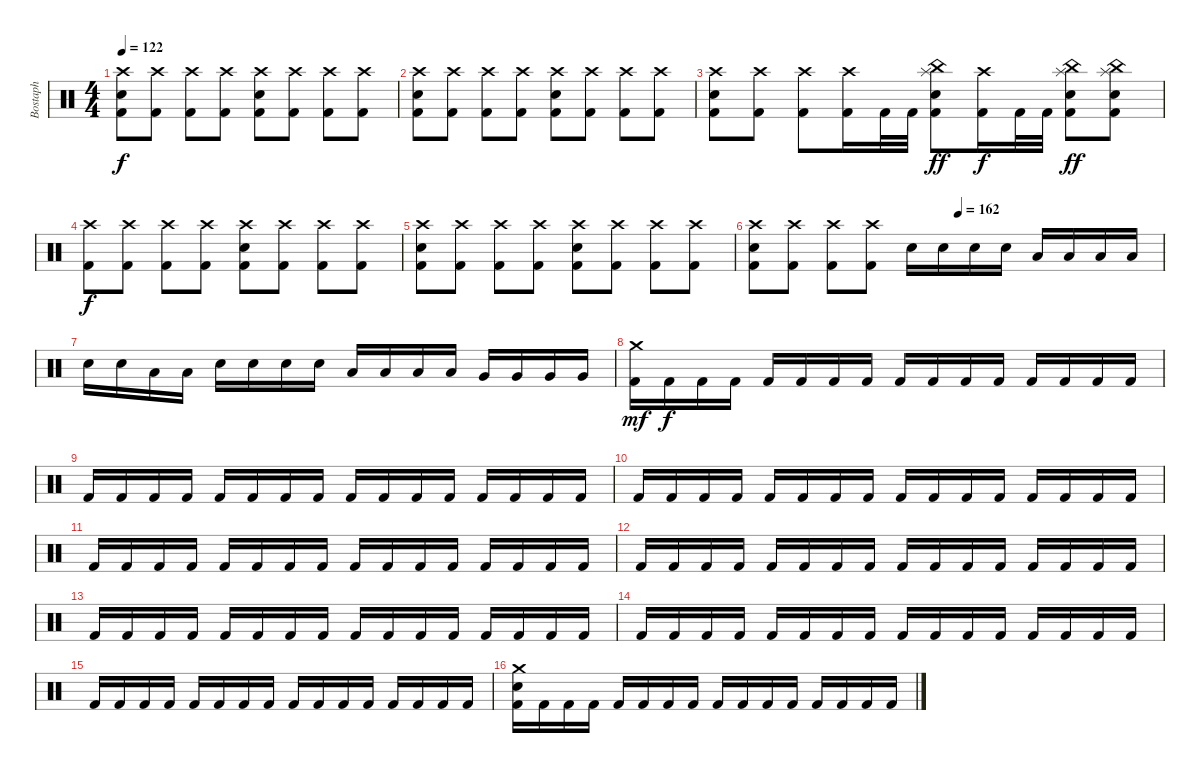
\track ("Bostaph" "Bostaph") {instrument percussion}
\staff {score}
\articulation defaults
\ts (4 4)
\tempo 122
\clef neutral
\ks c
("Crash high (hit)" "Electric Snare (hit)" "Kick (hit) 2").8{dy f} ("Crash high (hit)" "Kick (hit) 2").8 ("Crash high (hit)" "Kick (hit) 2").8 ("Crash high (hit)" "Kick (hit) 2").8 ("Crash high (hit)" "Electric Snare (hit)" "Kick (hit) 2").8 ("Crash high (hit)" "Kick (hit) 2").8 ("Crash high (hit)" "Kick (hit) 2").8 ("Crash high (hit)" "Kick (hit) 2").8 |
("Crash high (hit)" "Electric Snare (hit)" "Kick (hit) 2").8 ("Crash high (hit)" "Kick (hit) 2").8 ("Crash high (hit)" "Kick (hit) 2").8 ("Crash high (hit)" "Kick (hit) 2").8 ("Crash high (hit)" "Electric Snare (hit)" "Kick (hit) 2").8 ("Crash high (hit)" "Kick (hit) 2").8 ("Crash high (hit)" "Kick (hit) 2").8 ("Crash high (hit)" "Kick (hit) 2").8 |
("Crash high (hit)" "Electric Snare (hit)" "Kick (hit) 2").8 ("Crash high (hit)" "Kick (hit) 2").8 ("Crash high (hit)" "Kick (hit) 2").8 ("Crash high (hit)" "Kick (hit) 2").16 "Kick (hit) 2".32 "Kick (hit) 2".32 ("China (hit)" "Splash (hit)" "Electric Snare (hit)" "Kick (hit) 2").8{dy ff} ("Crash high (hit)" "Kick (hit) 2").16{dy f} "Kick (hit) 2".32 "Kick (hit) 2".32 ("China (hit)" "Splash (hit)" "Electric Snare (hit)" "Kick (hit) 2").8{dy ff} ("China (hit)" "Splash (hit)" "Electric Snare (hit)" "Kick (hit) 2").8 |
("Crash high (hit)" "Kick (hit) 2").8{dy f} ("Crash high (hit)" "Kick (hit) 2").8 ("Crash high (hit)" "Kick (hit) 2").8 ("Crash high (hit)" "Kick (hit) 2").8 ("Crash high (hit)" "Electric Snare (hit)" "Kick (hit) 2").8 ("Crash high (hit)" "Kick (hit) 2").8 ("Crash high (hit)" "Kick (hit) 2").8 ("Crash high (hit)" "Kick (hit) 2").8 |
("Crash high (hit)" "Electric Snare (hit)" "Kick (hit) 2").8 ("Crash high (hit)" "Kick (hit) 2").8 ("Crash high (hit)" "Kick (hit) 2").8 ("Crash high (hit)" "Kick (hit) 2").8 ("Crash high (hit)" "Electric Snare (hit)" "Kick (hit) 2").8 ("Crash high (hit)" "Kick (hit) 2").8 ("Crash high (hit)" "Kick (hit) 2").8 ("Crash high (hit)" "Kick (hit) 2").8 |
\tempo (162 0.5)
("Crash high (hit)" "Electric Snare (hit)" "Kick (hit) 2").8 ("Crash high (hit)" "Kick (hit) 2").8 ("Crash high (hit)" "Kick (hit) 2").8 ("Crash high (hit)" "Kick (hit) 2").8 "Electric Snare (hit)".16 "Electric Snare (hit)".16 "Electric Snare (hit)".16 "Electric Snare (hit)".16 "Low Tom (hit)".16 "Low Tom (hit)".16 "Low Tom (hit)".16 "Low Tom (hit)".16 |
"Electric Snare (hit)".16 "Electric Snare (hit)".16 "Low Tom (hit)".16 "Low Tom (hit)".16 "Electric Snare (hit)".16 "Electric Snare (hit)".16 "Electric Snare (hit)".16 "Electric Snare (hit)".16 "Low Tom (hit)".16 "Low Tom (hit)".16 "Low Tom (hit)".16 "Low Tom (hit)".16 "Very Low Tom (hit)".16 "Very Low Tom (hit)".16 "Very Low Tom (hit)".16 "Very Low Tom (hit)".16 |
("Crash medium (hit)" "Kick (hit) 2").16{dy mf} "Kick (hit) 2".16{dy f} "Kick (hit) 2".16 "Kick (hit) 2".16 "Kick (hit) 2".16 "Kick (hit) 2".16 "Kick (hit) 2".16 "Kick (hit) 2".16 "Kick (hit) 2".16 "Kick (hit) 2".16 "Kick (hit) 2".16 "Kick (hit) 2".16 "Kick (hit) 2".16 "Kick (hit) 2".16 "Kick (hit) 2".16 "Kick (hit) 2".16 |
"Kick (hit) 2".16 "Kick (hit) 2".16 "Kick (hit) 2".16 "Kick (hit) 2".16 "Kick (hit) 2".16 "Kick (hit) 2".16 "Kick (hit) 2".16 "Kick (hit) 2".16 "Kick (hit) 2".16 "Kick (hit) 2".16 "Kick (hit) 2".16 "Kick (hit) 2".16 "Kick (hit) 2".16 "Kick (hit) 2".16 "Kick (hit) 2".16 "Kick (hit) 2".16 |
"Kick (hit) 2".16 "Kick (hit) 2".16 "Kick (hit) 2".16 "Kick (hit) 2".16 "Kick (hit) 2".16 "Kick (hit) 2".16 "Kick (hit) 2".16 "Kick (hit) 2".16 "Kick (hit) 2".16 "Kick (hit) 2".16 "Kick (hit) 2".16 "Kick (hit) 2".16 "Kick (hit) 2".16 "Kick (hit) 2".16 "Kick (hit) 2".16 "Kick (hit) 2".16 |
"Kick (hit) 2".16 "Kick (hit) 2".16 "Kick (hit) 2".16 "Kick (hit) 2".16 "Kick (hit) 2".16 "Kick (hit) 2".16 "Kick (hit) 2".16 "Kick (hit) 2".16 "Kick (hit) 2".16 "Kick (hit) 2".16 "Kick (hit) 2".16 "Kick (hit) 2".16 "Kick (hit) 2".16 "Kick (hit) 2".16 "Kick (hit) 2".16 "Kick (hit) 2".16 |
"Kick (hit) 2".16 "Kick (hit) 2".16 "Kick (hit) 2".16 "Kick (hit) 2".16 "Kick (hit) 2".16 "Kick (hit) 2".16 "Kick (hit) 2".16 "Kick (hit) 2".16 "Kick (hit) 2".16 "Kick (hit) 2".16 "Kick (hit) 2".16 "Kick (hit) 2".16 "Kick (hit) 2".16 "Kick (hit) 2".16 "Kick (hit) 2".16 "Kick (hit) 2".16 |
"Kick (hit) 2".16 "Kick (hit) 2".16 "Kick (hit) 2".16 "Kick (hit) 2".16 "Kick (hit) 2".16 "Kick (hit) 2".16 "Kick (hit) 2".16 "Kick (hit) 2".16 "Kick (hit) 2".16 "Kick (hit) 2".16 "Kick (hit) 2".16 "Kick (hit) 2".16 "Kick (hit) 2".16 "Kick (hit) 2".16 "Kick (hit) 2".16 "Kick (hit) 2".16 |
"Kick (hit) 2".16 "Kick (hit) 2".16 "Kick (hit) 2".16 "Kick (hit) 2".16 "Kick (hit) 2".16 "Kick (hit) 2".16 "Kick (hit) 2".16 "Kick (hit) 2".16 "Kick (hit) 2".16 "Kick (hit) 2".16 "Kick (hit) 2".16 "Kick (hit) 2".16 "Kick (hit) 2".16 "Kick (hit) 2".16 "Kick (hit) 2".16 "Kick (hit) 2".16 |
"Kick (hit) 2".16 "Kick (hit) 2".16 "Kick (hit) 2".16 "Kick (hit) 2".16 "Kick (hit) 2".16 "Kick (hit) 2".16 "Kick (hit) 2".16 "Kick (hit) 2".16 "Kick (hit) 2".16 "Kick (hit) 2".16 "Kick (hit) 2".16 "Kick (hit) 2".16 "Kick (hit) 2".16 "Kick (hit) 2".16 "Kick (hit) 2".16 "Kick (hit) 2".16 |
("Crash medium (hit)" "Electric Snare (hit)" "Kick (hit) 2").16 "Kick (hit) 2".16 "Kick (hit) 2".16 "Kick (hit) 2".16 "Kick (hit) 2".16 "Kick (hit) 2".16 "Kick (hit) 2".16 "Kick (hit) 2".16 "Kick (hit) 2".16 "Kick (hit) 2".16 "Kick (hit) 2".16 "Kick (hit) 2".16 "Kick (hit) 2".16 "Kick (hit) 2".16 "Kick (hit) 2".16 "Kick (hit) 2".16
